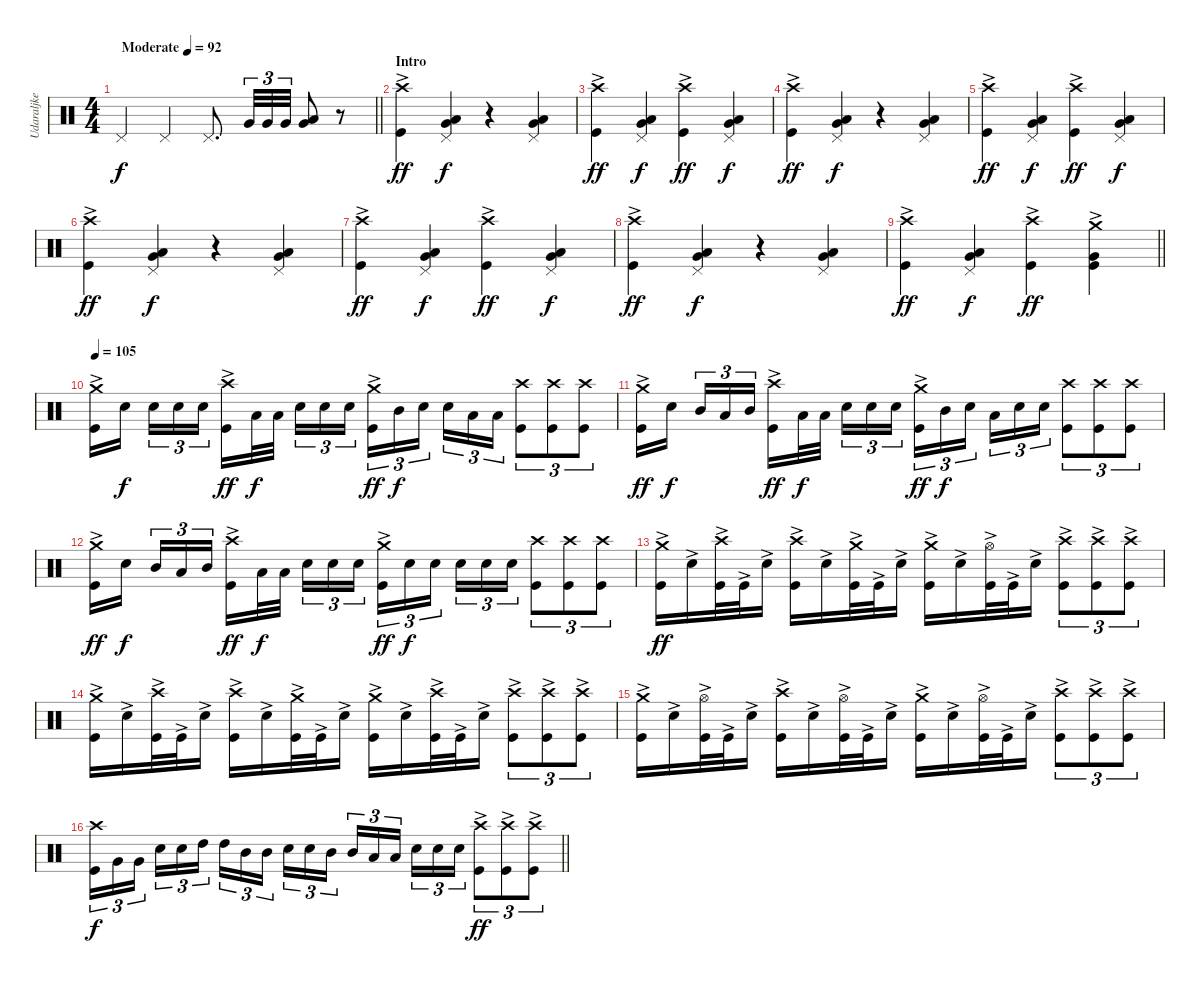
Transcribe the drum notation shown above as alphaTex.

\track ("Udaraljke" "Udaraljke") {instrument percussion}
\staff {score}
\articulation defaults
\ts (4 4)
\tempo (92 "Moderate")
\clef neutral
\barLineRight lightlight
\ks c "Pedal Hi-Hat (hit)".4{dy f} "Pedal Hi-Hat (hit)".4 "Pedal Hi-Hat (hit)".8{d} "Very Low Tom (hit)".32{tu (3 2)} "Very Low Tom (hit)".32{tu (3 2)} "Very Low Tom (hit)".32{tu (3 2)}
("Low Floor Tom (hit)" "Very Low Tom (hit)").8 r.8 |
\section ("" "Intro")
("Kick (hit)"{ac} "Crash high (hit)").4{dy ff} ("Low Floor Tom (hit)" "Very Low Tom (hit)" "Pedal Hi-Hat (hit)").4{dy f} r.4 ("Low Floor Tom (hit)" "Very Low Tom (hit)" "Pedal Hi-Hat (hit)").4 |
("Kick (hit)"{ac} "Crash high (hit)").4{dy ff} ("Low Floor Tom (hit)" "Very Low Tom (hit)" "Pedal Hi-Hat (hit)").4{dy f} ("Kick (hit)"{ac} "Crash high (hit)").4{dy ff} ("Low Floor Tom (hit)" "Very Low Tom (hit)" "Pedal Hi-Hat (hit)").4{dy f} |
("Kick (hit)"{ac} "Crash high (hit)").4{dy ff} ("Low Floor Tom (hit)" "Very Low Tom (hit)" "Pedal Hi-Hat (hit)").4{dy f} r.4 ("Low Floor Tom (hit)" "Very Low Tom (hit)" "Pedal Hi-Hat (hit)").4 |
("Kick (hit)"{ac} "Crash high (hit)").4{dy ff} ("Low Floor Tom (hit)" "Very Low Tom (hit)" "Pedal Hi-Hat (hit)").4{dy f} ("Kick (hit)"{ac} "Crash high (hit)").4{dy ff} ("Low Floor Tom (hit)" "Very Low Tom (hit)" "Pedal Hi-Hat (hit)").4{dy f} |
("Kick (hit)"{ac} "Crash high (hit)").4{dy ff} ("Low Floor Tom (hit)" "Very Low Tom (hit)" "Pedal Hi-Hat (hit)").4{dy f} r.4 ("Low Floor Tom (hit)" "Very Low Tom (hit)" "Pedal Hi-Hat (hit)").4 |
("Kick (hit)"{ac} "Crash high (hit)").4{dy ff} ("Low Floor Tom (hit)" "Very Low Tom (hit)" "Pedal Hi-Hat (hit)").4{dy f} ("Kick (hit)"{ac} "Crash high (hit)").4{dy ff} ("Low Floor Tom (hit)" "Very Low Tom (hit)" "Pedal Hi-Hat (hit)").4{dy f} |
("Kick (hit)"{ac} "Crash high (hit)").4{dy ff} ("Low Floor Tom (hit)" "Very Low Tom (hit)" "Pedal Hi-Hat (hit)").4{dy f} r.4 ("Low Floor Tom (hit)" "Very Low Tom (hit)" "Pedal Hi-Hat (hit)").4 |
\barLineRight lightlight
("Kick (hit)"{ac} "Crash high (hit)").4{dy ff} ("Low Floor Tom (hit)" "Very Low Tom (hit)" "Pedal Hi-Hat (hit)").4{dy f} ("Kick (hit)"{ac} "Crash high (hit)").4{dy ff} ("Kick (hit)"{ac} "Very Low Tom (hit)" "Crash medium (hit)").4 |
\section ("" "")
\tempo 105
("Kick (hit)"{ac} "Crash medium (hit)").16 "Snare (hit) 2".16{dy f beam splitsecondary} "Snare (hit) 2".16{tu (3 2)} "Snare (hit) 2".16{tu (3 2)} "Snare (hit) 2".16{tu (3 2)} ("Kick (hit)"{ac} "Crash high (hit)").16{dy ff} "Low Tom (hit)".32{dy f} "Low Tom (hit)".32{beam splitsecondary} "Snare (hit) 2".16{tu (3 2)} "Snare (hit) 2".16{tu (3 2)} "Snare (hit) 2".16{tu (3 2)} ("Kick (hit)"{ac} "Crash medium (hit)").16{tu (3 2) dy ff} "Mid Tom (hit)".16{tu (3 2) dy f} "Snare (hit) 2".16{tu (3 2) beam splitsecondary} "Snare (hit) 2".16{tu (3 2)} "Low Tom (hit)".16{tu (3 2)} "Low Tom (hit)".16{tu (3 2)} ("Kick (hit)" "Crash high (hit)").8{tu (3 2)} ("Kick (hit)" "Crash high (hit)").8{tu (3 2)} ("Kick (hit)" "Crash high (hit)").8{tu (3 2)} |
("Kick (hit)"{ac} "Crash medium (hit)").16{dy ff} "Snare (hit) 2".16{dy f beam splitsecondary} "Mid Tom (hit)".16{tu (3 2)} "Low Tom (hit)".16{tu (3 2)} "Mid Tom (hit)".16{tu (3 2)} ("Kick (hit)"{ac} "Crash high (hit)").16{dy ff} "Low Tom (hit)".32{dy f} "Low Tom (hit)".32{beam splitsecondary} "Snare (hit) 2".16{tu (3 2)} "Snare (hit) 2".16{tu (3 2)} "Snare (hit) 2".16{tu (3 2)} ("Kick (hit)"{ac} "Crash medium (hit)").16{tu (3 2) dy ff} "Mid Tom (hit)".16{tu (3 2) dy f} "Snare (hit) 2".16{tu (3 2) beam splitsecondary} "Low Tom (hit)".16{tu (3 2)} "Snare (hit) 2".16{tu (3 2)} "Snare (hit) 2".16{tu (3 2)} ("Kick (hit)" "Crash high (hit)").8{tu (3 2)} ("Kick (hit)" "Crash high (hit)").8{tu (3 2)} ("Kick (hit)" "Crash high (hit)").8{tu (3 2)} |
("Kick (hit)"{ac} "Crash medium (hit)").16{dy ff} "Snare (hit) 2".16{dy f beam splitsecondary} "Mid Tom (hit)".16{tu (3 2)} "Low Tom (hit)".16{tu (3 2)} "Mid Tom (hit)".16{tu (3 2)} ("Kick (hit)"{ac} "Crash high (hit)").16{dy ff} "Low Tom (hit)".32{dy f} "Low Tom (hit)".32{beam splitsecondary} "Snare (hit) 2".16{tu (3 2)} "Snare (hit) 2".16{tu (3 2)} "Snare (hit) 2".16{tu (3 2)} ("Kick (hit)"{ac} "Crash medium (hit)").16{tu (3 2) dy ff} "Snare (hit) 2".16{tu (3 2) dy f} "Snare (hit) 2".16{tu (3 2) beam splitsecondary} "Snare (hit) 2".16{tu (3 2)} "Snare (hit) 2".16{tu (3 2)} "Snare (hit) 2".16{tu (3 2)} ("Kick (hit)" "Crash high (hit)").8{tu (3 2)} ("Kick (hit)" "Crash high (hit)").8{tu (3 2)} ("Kick (hit)" "Crash high (hit)").8{tu (3 2)} |
("Kick (hit)"{ac} "Crash medium (hit)").16{dy ff} "Snare (hit) 2"{ac}.16 ("Kick (hit)"{ac} "Crash high (hit)").32 "Kick (hit)"{ac}.32 "Snare (hit) 2"{ac}.16 ("Kick (hit)"{ac} "Crash high (hit)").16 "Snare (hit) 2"{ac}.16 ("Kick (hit)"{ac} "Crash medium (hit)").32 "Kick (hit)"{ac}.32 "Snare (hit) 2"{ac}.16 ("Kick (hit)"{ac} "Crash medium (hit)").16 "Snare (hit) 2"{ac}.16 ("Kick (hit)"{ac} "Hi-Hat (open)").32 "Kick (hit)"{ac}.32 "Snare (hit) 2"{ac}.16 ("Kick (hit)"{ac} "Crash high (hit)").8{tu (3 2)} ("Kick (hit)"{ac} "Crash high (hit)").8{tu (3 2)} ("Kick (hit)"{ac} "Crash high (hit)").8{tu (3 2)} |
("Kick (hit)"{ac} "Crash medium (hit)").16 "Snare (hit) 2"{ac}.16 ("Kick (hit)"{ac} "Crash high (hit)").32 "Kick (hit)"{ac}.32 "Snare (hit) 2"{ac}.16 ("Kick (hit)"{ac} "Crash high (hit)").16 "Snare (hit) 2"{ac}.16 ("Kick (hit)"{ac} "Crash medium (hit)").32 "Kick (hit)"{ac}.32 "Snare (hit) 2"{ac}.16 ("Kick (hit)"{ac} "Crash medium (hit)").16 "Snare (hit) 2"{ac}.16 ("Kick (hit)"{ac} "Crash high (hit)").32 "Kick (hit)"{ac}.32 "Snare (hit) 2"{ac}.16 ("Kick (hit)"{ac} "Crash high (hit)").8{tu (3 2)} ("Kick (hit)"{ac} "Crash high (hit)").8{tu (3 2)} ("Kick (hit)"{ac} "Crash high (hit)").8{tu (3 2)} |
("Kick (hit)"{ac} "Crash medium (hit)").16 "Snare (hit) 2"{ac}.16 ("Kick (hit)"{ac} "Hi-Hat (open)").32 "Kick (hit)"{ac}.32 "Snare (hit) 2"{ac}.16 ("Kick (hit)"{ac} "Crash high (hit)").16 "Snare (hit) 2"{ac}.16 ("Kick (hit)"{ac} "Hi-Hat (open)").32 "Kick (hit)"{ac}.32 "Snare (hit) 2"{ac}.16 ("Kick (hit)"{ac} "Crash medium (hit)").16 "Snare (hit) 2"{ac}.16 ("Kick (hit)"{ac} "Hi-Hat (open)").32 "Kick (hit)"{ac}.32 "Snare (hit) 2"{ac}.16 ("Kick (hit)"{ac} "Crash high (hit)").8{tu (3 2)} ("Kick (hit)"{ac} "Crash high (hit)").8{tu (3 2)} ("Kick (hit)"{ac} "Crash high (hit)").8{tu (3 2)} |
\barLineRight lightlight
("Kick (hit)" "Crash high (hit)").16{tu (3 2) dy f} "Very Low Tom (hit)".16{tu (3 2)} "Very Low Tom (hit)".16{tu (3 2) beam splitsecondary} "Snare (hit) 2".16{tu (3 2)} "Snare (hit) 2".16{tu (3 2)} "High Tom (hit)".16{tu (3 2)} "High Tom (hit)".16{tu (3 2)} "Mid Tom (hit)".16{tu (3 2)} "Mid Tom (hit)".16{tu (3 2) beam splitsecondary} "Snare (hit) 2".16{tu (3 2)} "Snare (hit) 2".16{tu (3 2)} "Mid Tom (hit)".16{tu (3 2)} "Mid Tom (hit)".16{tu (3 2)} "Low Tom (hit)".16{tu (3 2)} "Low Tom (hit)".16{tu (3 2) beam splitsecondary} "Snare (hit) 2".16{tu (3 2)} "Snare (hit) 2".16{tu (3 2)} "Snare (hit) 2".16{tu (3 2)} ("Kick (hit)"{ac} "Crash high (hit)").8{tu (3 2) dy ff} ("Kick (hit)"{ac} "Crash high (hit)").8{tu (3 2)} ("Kick (hit)"{ac} "Crash high (hit)").8{tu (3 2)}
